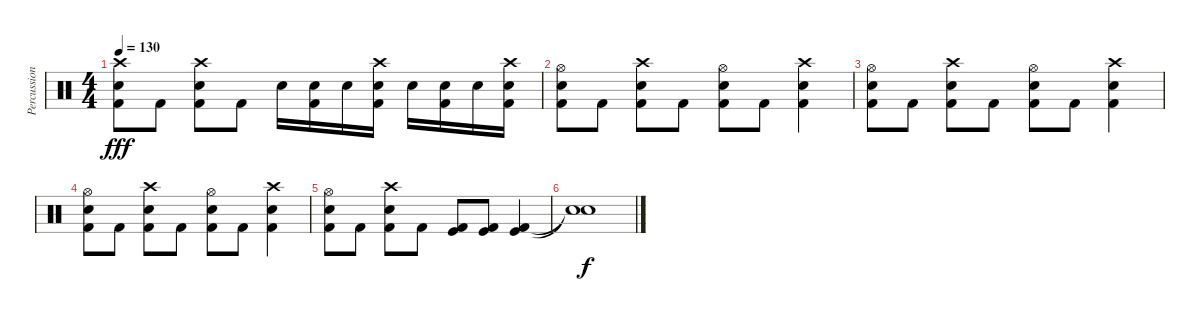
\track ("Percussion" "Percussion") {instrument percussion}
\staff {score}
\articulation defaults
\ts (4 4)
\tempo 130
\clef neutral
\ks c
("Crash high (hit)" "Electric Snare (hit)" "Kick (hit) 2").8{dy fff} "Kick (hit) 2".8 ("Crash high (hit)" "Electric Snare (hit)" "Kick (hit) 2").8 "Kick (hit) 2".8 "Electric Snare (hit)".16 ("Electric Snare (hit)" "Kick (hit) 2").16 "Electric Snare (hit)".16 ("Crash high (hit)" "Electric Snare (hit)" "Kick (hit) 2").16 "Electric Snare (hit)".16 ("Electric Snare (hit)" "Kick (hit) 2").16 "Electric Snare (hit)".16 ("Crash high (hit)" "Electric Snare (hit)" "Kick (hit) 2").16 |
("Hi-Hat (open)" "Electric Snare (hit)" "Kick (hit) 2").8 "Kick (hit) 2".8 ("Crash high (hit)" "Electric Snare (hit)" "Kick (hit) 2").8 "Kick (hit) 2".8 ("Hi-Hat (open)" "Electric Snare (hit)" "Kick (hit) 2").8 "Kick (hit) 2".8 ("Crash high (hit)" "Electric Snare (hit)" "Kick (hit) 2").4 |
("Hi-Hat (open)" "Electric Snare (hit)" "Kick (hit) 2").8 "Kick (hit) 2".8 ("Crash high (hit)" "Electric Snare (hit)" "Kick (hit) 2").8 "Kick (hit) 2".8 ("Hi-Hat (open)" "Electric Snare (hit)" "Kick (hit) 2").8 "Kick (hit) 2".8 ("Crash high (hit)" "Electric Snare (hit)" "Kick (hit) 2").4 |
("Hi-Hat (open)" "Electric Snare (hit)" "Kick (hit) 2").8 "Kick (hit) 2".8 ("Crash high (hit)" "Electric Snare (hit)" "Kick (hit) 2").8 "Kick (hit) 2".8 ("Hi-Hat (open)" "Electric Snare (hit)" "Kick (hit) 2").8 "Kick (hit) 2".8 ("Crash high (hit)" "Electric Snare (hit)" "Kick (hit) 2").4 |
("Hi-Hat (open)" "Electric Snare (hit)" "Kick (hit) 2").8 "Kick (hit) 2".8 ("Crash high (hit)" "Electric Snare (hit)" "Kick (hit) 2").8 "Kick (hit) 2".8 ("Kick (hit)" "Kick (hit) 2").8 ("Kick (hit)" "Kick (hit) 2").8 ("Kick (hit)" "Kick (hit) 2").4 |
("Snare (hit)"{t} "Snare (hit)"{t}).1{dy f}
